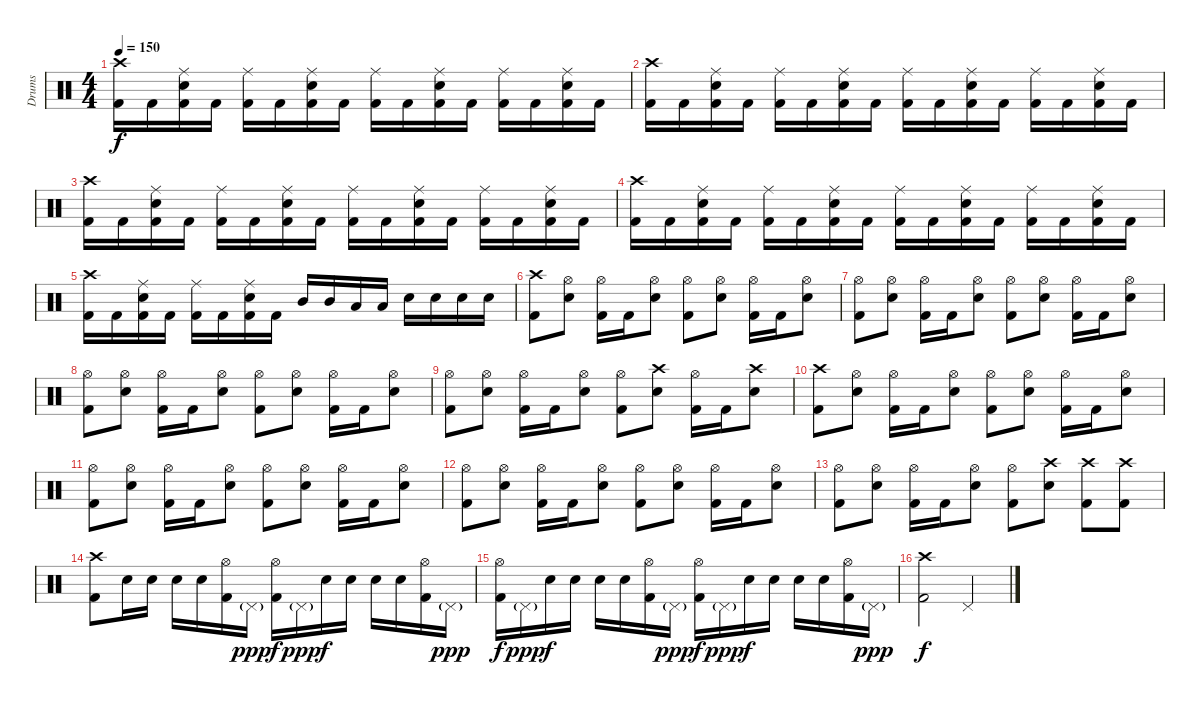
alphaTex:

\track ("Drums" "Drums") {instrument percussion}
\staff {score}
\articulation defaults
\ts (4 4)
\tempo 150
\clef neutral
\ks c
("Crash high (hit)" "Kick (hit) 2").16{dy f} "Kick (hit) 2".16 ("Ride (middle)" "Electric Snare (hit)" "Kick (hit) 2").16 "Kick (hit) 2".16 ("Ride (middle)" "Kick (hit) 2").16 "Kick (hit) 2".16 ("Ride (middle)" "Electric Snare (hit)" "Kick (hit) 2").16 "Kick (hit) 2".16 ("Ride (middle)" "Kick (hit) 2").16 "Kick (hit) 2".16 ("Ride (middle)" "Electric Snare (hit)" "Kick (hit) 2").16 "Kick (hit) 2".16 ("Ride (middle)" "Kick (hit) 2").16 "Kick (hit) 2".16 ("Ride (middle)" "Electric Snare (hit)" "Kick (hit) 2").16 "Kick (hit) 2".16 |
("Crash high (hit)" "Kick (hit) 2").16 "Kick (hit) 2".16 ("Ride (middle)" "Electric Snare (hit)" "Kick (hit) 2").16 "Kick (hit) 2".16 ("Ride (middle)" "Kick (hit) 2").16 "Kick (hit) 2".16 ("Ride (middle)" "Electric Snare (hit)" "Kick (hit) 2").16 "Kick (hit) 2".16 ("Ride (middle)" "Kick (hit) 2").16 "Kick (hit) 2".16 ("Ride (middle)" "Electric Snare (hit)" "Kick (hit) 2").16 "Kick (hit) 2".16 ("Ride (middle)" "Kick (hit) 2").16 "Kick (hit) 2".16 ("Ride (middle)" "Electric Snare (hit)" "Kick (hit) 2").16 "Kick (hit) 2".16 |
("Crash high (hit)" "Kick (hit) 2").16 "Kick (hit) 2".16 ("Ride (middle)" "Electric Snare (hit)" "Kick (hit) 2").16 "Kick (hit) 2".16 ("Ride (middle)" "Kick (hit) 2").16 "Kick (hit) 2".16 ("Ride (middle)" "Electric Snare (hit)" "Kick (hit) 2").16 "Kick (hit) 2".16 ("Ride (middle)" "Kick (hit) 2").16 "Kick (hit) 2".16 ("Ride (middle)" "Electric Snare (hit)" "Kick (hit) 2").16 "Kick (hit) 2".16 ("Ride (middle)" "Kick (hit) 2").16 "Kick (hit) 2".16 ("Ride (middle)" "Electric Snare (hit)" "Kick (hit) 2").16 "Kick (hit) 2".16 |
("Crash high (hit)" "Kick (hit) 2").16 "Kick (hit) 2".16 ("Ride (middle)" "Electric Snare (hit)" "Kick (hit) 2").16 "Kick (hit) 2".16 ("Ride (middle)" "Kick (hit) 2").16 "Kick (hit) 2".16 ("Ride (middle)" "Electric Snare (hit)" "Kick (hit) 2").16 "Kick (hit) 2".16 ("Ride (middle)" "Kick (hit) 2").16 "Kick (hit) 2".16 ("Ride (middle)" "Electric Snare (hit)" "Kick (hit) 2").16 "Kick (hit) 2".16 ("Ride (middle)" "Kick (hit) 2").16 "Kick (hit) 2".16 ("Ride (middle)" "Electric Snare (hit)" "Kick (hit) 2").16 "Kick (hit) 2".16 |
("Crash high (hit)" "Kick (hit) 2").16 "Kick (hit) 2".16 ("Ride (middle)" "Electric Snare (hit)" "Kick (hit) 2").16 "Kick (hit) 2".16 ("Ride (middle)" "Kick (hit) 2").16 "Kick (hit) 2".16 ("Ride (middle)" "Electric Snare (hit)" "Kick (hit) 2").16 "Kick (hit) 2".16 "Mid Tom (hit)".16 "Mid Tom (hit)".16 "Low Tom (hit)".16 "Low Tom (hit)".16 "Electric Snare (hit)".16 "Electric Snare (hit)".16 "Electric Snare (hit)".16 "Electric Snare (hit)".16 |
("Crash high (hit)" "Kick (hit) 2").8 ("Hi-Hat (open)" "Electric Snare (hit)").8 ("Hi-Hat (open)" "Kick (hit) 2").16 "Kick (hit) 2".16 ("Hi-Hat (open)" "Electric Snare (hit)").8 ("Hi-Hat (open)" "Kick (hit) 2").8 ("Hi-Hat (open)" "Electric Snare (hit)").8 ("Hi-Hat (open)" "Kick (hit) 2").16 "Kick (hit) 2".16 ("Hi-Hat (open)" "Electric Snare (hit)").8 |
("Hi-Hat (open)" "Kick (hit) 2").8 ("Hi-Hat (open)" "Electric Snare (hit)").8 ("Hi-Hat (open)" "Kick (hit) 2").16 "Kick (hit) 2".16 ("Hi-Hat (open)" "Electric Snare (hit)").8 ("Hi-Hat (open)" "Kick (hit) 2").8 ("Hi-Hat (open)" "Electric Snare (hit)").8 ("Hi-Hat (open)" "Kick (hit) 2").16 "Kick (hit) 2".16 ("Hi-Hat (open)" "Electric Snare (hit)").8 |
("Hi-Hat (open)" "Kick (hit) 2").8 ("Hi-Hat (open)" "Electric Snare (hit)").8 ("Hi-Hat (open)" "Kick (hit) 2").16 "Kick (hit) 2".16 ("Hi-Hat (open)" "Electric Snare (hit)").8 ("Hi-Hat (open)" "Kick (hit) 2").8 ("Hi-Hat (open)" "Electric Snare (hit)").8 ("Hi-Hat (open)" "Kick (hit) 2").16 "Kick (hit) 2".16 ("Hi-Hat (open)" "Electric Snare (hit)").8 |
("Hi-Hat (open)" "Kick (hit) 2").8 ("Hi-Hat (open)" "Electric Snare (hit)").8 ("Hi-Hat (open)" "Kick (hit) 2").16 "Kick (hit) 2".16 ("Hi-Hat (open)" "Electric Snare (hit)").8 ("Hi-Hat (open)" "Kick (hit) 2").8 ("Crash high (hit)" "Electric Snare (hit)").8 ("Hi-Hat (open)" "Kick (hit) 2").16 "Kick (hit) 2".16 ("Crash high (hit)" "Electric Snare (hit)").8 |
("Crash high (hit)" "Kick (hit) 2").8 ("Hi-Hat (open)" "Electric Snare (hit)").8 ("Hi-Hat (open)" "Kick (hit) 2").16 "Kick (hit) 2".16 ("Hi-Hat (open)" "Electric Snare (hit)").8 ("Hi-Hat (open)" "Kick (hit) 2").8 ("Hi-Hat (open)" "Electric Snare (hit)").8 ("Hi-Hat (open)" "Kick (hit) 2").16 "Kick (hit) 2".16 ("Hi-Hat (open)" "Electric Snare (hit)").8 |
("Hi-Hat (open)" "Kick (hit) 2").8 ("Hi-Hat (open)" "Electric Snare (hit)").8 ("Hi-Hat (open)" "Kick (hit) 2").16 "Kick (hit) 2".16 ("Hi-Hat (open)" "Electric Snare (hit)").8 ("Hi-Hat (open)" "Kick (hit) 2").8 ("Hi-Hat (open)" "Electric Snare (hit)").8 ("Hi-Hat (open)" "Kick (hit) 2").16 "Kick (hit) 2".16 ("Hi-Hat (open)" "Electric Snare (hit)").8 |
("Hi-Hat (open)" "Kick (hit) 2").8 ("Hi-Hat (open)" "Electric Snare (hit)").8 ("Hi-Hat (open)" "Kick (hit) 2").16 "Kick (hit) 2".16 ("Hi-Hat (open)" "Electric Snare (hit)").8 ("Hi-Hat (open)" "Kick (hit) 2").8 ("Hi-Hat (open)" "Electric Snare (hit)").8 ("Hi-Hat (open)" "Kick (hit) 2").16 "Kick (hit) 2".16 ("Hi-Hat (open)" "Electric Snare (hit)").8 |
("Hi-Hat (open)" "Kick (hit) 2").8 ("Hi-Hat (open)" "Electric Snare (hit)").8 ("Hi-Hat (open)" "Kick (hit) 2").16 "Kick (hit) 2".16 ("Hi-Hat (open)" "Electric Snare (hit)").8 ("Hi-Hat (open)" "Kick (hit) 2").8 ("Crash high (hit)" "Electric Snare (hit)").8 ("Crash high (hit)" "Kick (hit) 2").8 ("Crash high (hit)" "Kick (hit) 2").8 |
("Crash high (hit)" "Kick (hit) 2").8 "Electric Snare (hit)".16 "Electric Snare (hit)".16 "Electric Snare (hit)".16 "Electric Snare (hit)".16 ("Hi-Hat (open)" "Kick (hit) 2").16 "Pedal Hi-Hat (hit)"{g}.16{dy ppp} ("Hi-Hat (open)" "Kick (hit) 2").16{dy f} "Pedal Hi-Hat (hit)"{g}.16{dy ppp} "Electric Snare (hit)".16{dy f} "Electric Snare (hit)".16 "Electric Snare (hit)".16 "Electric Snare (hit)".16 ("Hi-Hat (open)" "Kick (hit) 2").16 "Pedal Hi-Hat (hit)"{g}.16{dy ppp} |
("Hi-Hat (open)" "Kick (hit) 2").16{dy f} "Pedal Hi-Hat (hit)"{g}.16{dy ppp} "Electric Snare (hit)".16{dy f} "Electric Snare (hit)".16 "Electric Snare (hit)".16 "Electric Snare (hit)".16 ("Hi-Hat (open)" "Kick (hit) 2").16 "Pedal Hi-Hat (hit)"{g}.16{dy ppp} ("Hi-Hat (open)" "Kick (hit) 2").16{dy f} "Pedal Hi-Hat (hit)"{g}.16{dy ppp} "Electric Snare (hit)".16{dy f} "Electric Snare (hit)".16 "Electric Snare (hit)".16 "Electric Snare (hit)".16 ("Hi-Hat (open)" "Kick (hit) 2").16 "Pedal Hi-Hat (hit)"{g}.16{dy ppp} |
("Crash high (hit)" "Kick (hit) 2").2{dy f} "Pedal Hi-Hat (hit)".2
